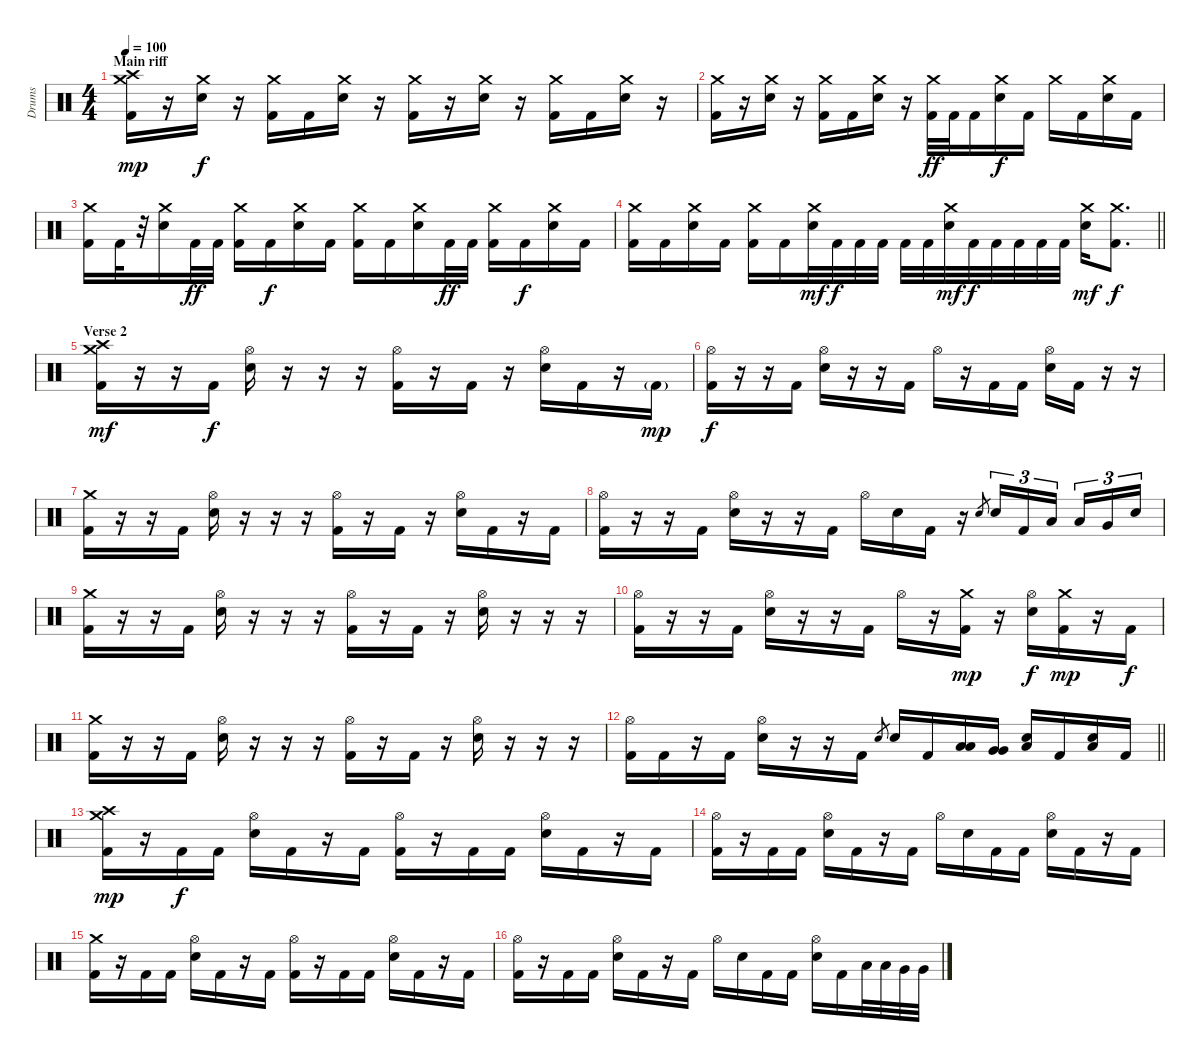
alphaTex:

\track ("Drums" "Drums") {instrument percussion}
\staff {score}
\articulation defaults
\ts (4 4)
\section ("" "Main riff")
\tempo 100
\clef neutral
\ks c
("Crash high (hit)" "Crash medium (hit)" "Kick (hit) 2").16{dy mp} r.16 ("Crash medium (hit)" "Electric Snare (hit)").16{dy f} r.16 ("Crash medium (hit)" "Kick (hit) 2").16 "Kick (hit) 2".16 ("Crash medium (hit)" "Electric Snare (hit)").16 r.16 ("Crash medium (hit)" "Kick (hit) 2").16 r.16 ("Crash medium (hit)" "Electric Snare (hit)").16 r.16 ("Crash medium (hit)" "Kick (hit) 2").16 "Kick (hit) 2".16 ("Crash medium (hit)" "Electric Snare (hit)").16 r.16 |
("Crash medium (hit)" "Kick (hit) 2").16 r.16 ("Crash medium (hit)" "Electric Snare (hit)").16 r.16 ("Crash medium (hit)" "Kick (hit) 2").16 "Kick (hit) 2".16 ("Crash medium (hit)" "Electric Snare (hit)").16 r.16 ("Crash medium (hit)" "Kick (hit) 2").32{dy ff} "Kick (hit) 2".32 "Kick (hit) 2".16 ("Crash medium (hit)" "Electric Snare (hit)").16{dy f} "Kick (hit) 2".16 "Crash medium (hit)".16 "Kick (hit) 2".16 ("Crash medium (hit)" "Electric Snare (hit)").16 "Kick (hit) 2".16 |
("Crash medium (hit)" "Kick (hit) 2").16 "Kick (hit) 2".32 r.32 ("Crash medium (hit)" "Electric Snare (hit)").16 "Kick (hit) 2".32{dy ff} "Kick (hit) 2".32 ("Crash medium (hit)" "Kick (hit) 2").16 "Kick (hit) 2".16{dy f} ("Crash medium (hit)" "Electric Snare (hit)").16 "Kick (hit) 2".16 ("Crash medium (hit)" "Kick (hit) 2").16 "Kick (hit) 2".16 ("Crash medium (hit)" "Electric Snare (hit)").16 "Kick (hit) 2".32{dy ff} "Kick (hit) 2".32 ("Crash medium (hit)" "Kick (hit) 2").16 "Kick (hit) 2".16{dy f} ("Crash medium (hit)" "Electric Snare (hit)").16 "Kick (hit) 2".16 |
\barLineRight lightlight
("Crash medium (hit)" "Kick (hit) 2").16 "Kick (hit) 2".16 ("Crash medium (hit)" "Electric Snare (hit)").16 "Kick (hit) 2".16 ("Crash medium (hit)" "Kick (hit) 2").16 "Kick (hit) 2".16 ("Crash medium (hit)" "Electric Snare (hit)").32{dy mf} "Kick (hit) 2".32{dy f} "Kick (hit) 2".32 "Kick (hit) 2".32 "Kick (hit) 2".32 "Kick (hit) 2".32 ("Crash medium (hit)" "Electric Snare (hit)").32{dy mf} "Kick (hit) 2".32{dy f} "Kick (hit) 2".32 "Kick (hit) 2".32 "Kick (hit) 2".32 "Kick (hit) 2".32 ("Crash medium (hit)" "Electric Snare (hit)").16{dy mf} ("Crash medium (hit)" "Kick (hit) 2").8{d dy f} |
\section ("" "Verse 2")
("Crash high (hit)" "Crash medium (hit)" "Kick (hit) 2").16{dy mf} r.16 r.16 "Kick (hit) 2".16{dy f} ("Hi-Hat (open)" "Electric Snare (hit)").16 r.16 r.16 r.16 ("Hi-Hat (open)" "Kick (hit) 2").16 r.16 "Kick (hit) 2".16 r.16 ("Hi-Hat (open)" "Electric Snare (hit)").16 "Kick (hit) 2".16 r.16 "Kick (hit) 2"{g}.16{dy mp} |
("Hi-Hat (open)" "Kick (hit) 2").16{dy f} r.16 r.16 "Kick (hit) 2".16 ("Hi-Hat (open)" "Electric Snare (hit)").16 r.16 r.16 "Kick (hit) 2".16 "Hi-Hat (open)".16 r.16 "Kick (hit) 2".16 "Kick (hit) 2".16 ("Hi-Hat (open)" "Electric Snare (hit)").16 "Kick (hit) 2".16 r.16 r.16 |
("Crash medium (hit)" "Kick (hit) 2").16 r.16 r.16 "Kick (hit) 2".16 ("Hi-Hat (open)" "Electric Snare (hit)").16 r.16 r.16 r.16 ("Hi-Hat (open)" "Kick (hit) 2").16 r.16 "Kick (hit) 2".16 r.16 ("Hi-Hat (open)" "Electric Snare (hit)").16 "Kick (hit) 2".16 r.16 "Kick (hit) 2".16 |
("Hi-Hat (open)" "Kick (hit) 2").16 r.16 r.16 "Kick (hit) 2".16 ("Hi-Hat (open)" "Electric Snare (hit)").16 r.16 r.16 "Kick (hit) 2".16 "Hi-Hat (open)".16 "Electric Snare (hit)".16 "Kick (hit) 2".16 r.16 "Electric Snare (hit)".8{gr} "Electric Snare (hit)".16{tu (3 2)} "Kick (hit) 2".16{tu (3 2)} "Low Tom (hit)".16{tu (3 2) beam splitsecondary} "Low Tom (hit)".16{tu (3 2)} "Very Low Tom (hit)".16{tu (3 2)} "Electric Snare (hit)".16{tu (3 2)} |
("Crash medium (hit)" "Kick (hit) 2").16 r.16 r.16 "Kick (hit) 2".16 ("Hi-Hat (open)" "Electric Snare (hit)").16 r.16 r.16 r.16 ("Hi-Hat (open)" "Kick (hit) 2").16 r.16 "Kick (hit) 2".16 r.16 ("Hi-Hat (open)" "Electric Snare (hit)").16 r.16 r.16 r.16 |
("Hi-Hat (open)" "Kick (hit) 2").16 r.16 r.16 "Kick (hit) 2".16 ("Hi-Hat (open)" "Electric Snare (hit)").16 r.16 r.16 "Kick (hit) 2".16 "Hi-Hat (open)".16 r.16 ("Crash medium (hit)" "Kick (hit) 2").16{dy mp} r.16 ("Hi-Hat (open)" "Electric Snare (hit)").16{dy f} ("Crash medium (hit)" "Kick (hit) 2").16{dy mp} r.16 "Kick (hit) 2".16{dy f} |
("Crash medium (hit)" "Kick (hit) 2").16 r.16 r.16 "Kick (hit) 2".16 ("Hi-Hat (open)" "Electric Snare (hit)").16 r.16 r.16 r.16 ("Hi-Hat (open)" "Kick (hit) 2").16 r.16 "Kick (hit) 2".16 r.16 ("Hi-Hat (open)" "Electric Snare (hit)").16 r.16 r.16 r.16 |
\barLineRight lightlight
("Hi-Hat (open)" "Kick (hit) 2").16 "Kick (hit) 2".16 r.16 "Kick (hit) 2".16 ("Hi-Hat (open)" "Electric Snare (hit)").16 r.16 r.16 "Kick (hit) 2".16 "Electric Snare (hit)".8{gr} "Electric Snare (hit)".16 "Kick (hit) 2".16 ("Low Tom (hit)" "Low Tom (hit)").16 ("Very Low Tom (hit)" "Very Low Tom (hit)").16 ("Low Floor Tom (hit)" "Electric Snare (hit)").16 "Kick (hit) 2".16 ("Low Floor Tom (hit)" "Electric Snare (hit)").16 "Kick (hit) 2".16 |
\section ("" "")
("Crash high (hit)" "Crash medium (hit)" "Kick (hit) 2").16{dy mp} r.16 "Kick (hit) 2".16{dy f} "Kick (hit) 2".16 ("Hi-Hat (open)" "Electric Snare (hit)").16 "Kick (hit) 2".16 r.16 "Kick (hit) 2".16 ("Hi-Hat (open)" "Kick (hit) 2").16 r.16 "Kick (hit) 2".16 "Kick (hit) 2".16 ("Hi-Hat (open)" "Electric Snare (hit)").16 "Kick (hit) 2".16 r.16 "Kick (hit) 2".16 |
("Hi-Hat (open)" "Kick (hit) 2").16 r.16 "Kick (hit) 2".16 "Kick (hit) 2".16 ("Hi-Hat (open)" "Electric Snare (hit)").16 "Kick (hit) 2".16 r.16 "Kick (hit) 2".16 "Hi-Hat (open)".16 "Electric Snare (hit)".16 "Kick (hit) 2".16 "Kick (hit) 2".16 ("Hi-Hat (open)" "Electric Snare (hit)").16 "Kick (hit) 2".16 r.16 "Kick (hit) 2".16 |
("Crash medium (hit)" "Kick (hit) 2").16 r.16 "Kick (hit) 2".16 "Kick (hit) 2".16 ("Hi-Hat (open)" "Electric Snare (hit)").16 "Kick (hit) 2".16 r.16 "Kick (hit) 2".16 ("Hi-Hat (open)" "Kick (hit) 2").16 r.16 "Kick (hit) 2".16 "Kick (hit) 2".16 ("Hi-Hat (open)" "Electric Snare (hit)").16 "Kick (hit) 2".16 r.16 "Kick (hit) 2".16 |
("Hi-Hat (open)" "Kick (hit) 2").16 r.16 "Kick (hit) 2".16 "Kick (hit) 2".16 ("Hi-Hat (open)" "Electric Snare (hit)").16 "Kick (hit) 2".16 r.16 "Kick (hit) 2".16 "Hi-Hat (open)".16 "Electric Snare (hit)".16 "Kick (hit) 2".16 "Kick (hit) 2".16 ("Hi-Hat (open)" "Electric Snare (hit)").16 "Kick (hit) 2".16 "Low Tom (hit)".32 "Low Tom (hit)".32 "Very Low Tom (hit)".32 "Very Low Tom (hit)".32
